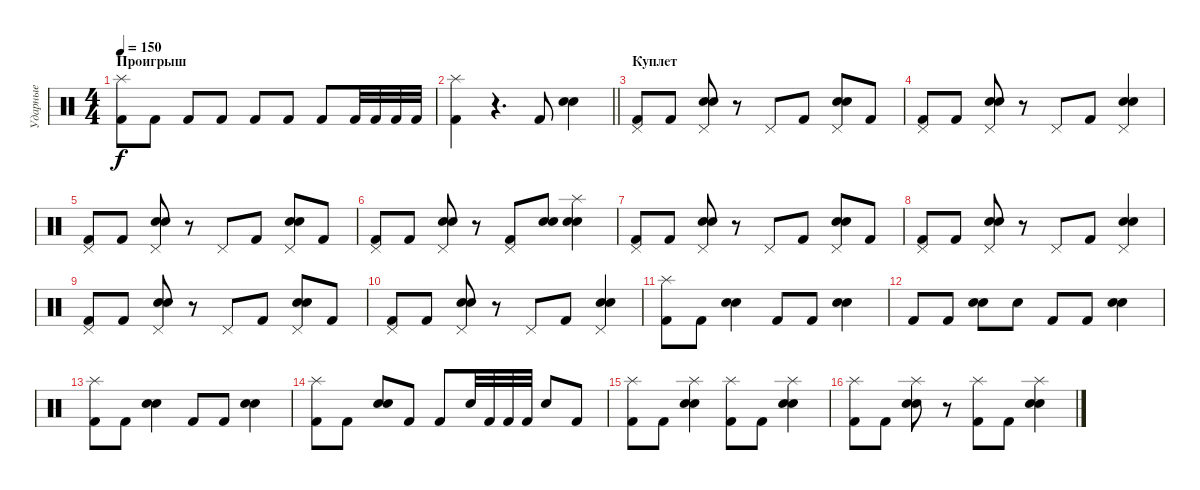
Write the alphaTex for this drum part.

\track ("Ударные" "Ударные") {instrument percussion}
\staff {score}
\articulation defaults
\ts (4 4)
\section ("" "Проигрыш")
\tempo 150
\clef neutral
\ks c
("Splash (hit)" "Kick (hit) 2").8{dy f} "Kick (hit) 2".8 "Kick (hit) 2".8 "Kick (hit) 2".8 "Kick (hit) 2".8 "Kick (hit) 2".8 "Kick (hit) 2".8 "Kick (hit) 2".32 "Kick (hit) 2".32 "Kick (hit) 2".32 "Kick (hit) 2".32 |
\barLineRight lightlight
("Splash (hit)" "Kick (hit) 2").4 r.4{d} "Kick (hit) 2".8 ("Electric Snare (hit)" "Snare (hit) 2").4 |
\section ("" "Куплет")
("Pedal Hi-Hat (hit)" "Kick (hit) 2").8 "Kick (hit) 2".8 ("Pedal Hi-Hat (hit)" "Electric Snare (hit)" "Snare (hit) 2").8 r.8 "Pedal Hi-Hat (hit)".8 "Kick (hit) 2".8 ("Pedal Hi-Hat (hit)" "Electric Snare (hit)" "Snare (hit) 2").8 "Kick (hit) 2".8 |
("Pedal Hi-Hat (hit)" "Kick (hit) 2").8 "Kick (hit) 2".8 ("Pedal Hi-Hat (hit)" "Electric Snare (hit)" "Snare (hit) 2").8 r.8 "Pedal Hi-Hat (hit)".8 "Kick (hit) 2".8 ("Pedal Hi-Hat (hit)" "Electric Snare (hit)" "Snare (hit) 2").4 |
("Pedal Hi-Hat (hit)" "Kick (hit) 2").8 "Kick (hit) 2".8 ("Pedal Hi-Hat (hit)" "Electric Snare (hit)" "Snare (hit) 2").8 r.8 "Pedal Hi-Hat (hit)".8 "Kick (hit) 2".8 ("Pedal Hi-Hat (hit)" "Electric Snare (hit)" "Snare (hit) 2").8 "Kick (hit) 2".8 |
("Pedal Hi-Hat (hit)" "Kick (hit) 2").8 "Kick (hit) 2".8 ("Pedal Hi-Hat (hit)" "Electric Snare (hit)" "Snare (hit) 2").8 r.8 ("Pedal Hi-Hat (hit)" "Kick (hit) 2").8 ("Electric Snare (hit)" "Snare (hit) 2").8 ("Splash (hit)" "Electric Snare (hit)" "Snare (hit) 2").4 |
("Pedal Hi-Hat (hit)" "Kick (hit) 2").8 "Kick (hit) 2".8 ("Pedal Hi-Hat (hit)" "Electric Snare (hit)" "Snare (hit) 2").8 r.8 "Pedal Hi-Hat (hit)".8 "Kick (hit) 2".8 ("Pedal Hi-Hat (hit)" "Electric Snare (hit)" "Snare (hit) 2").8 "Kick (hit) 2".8 |
("Pedal Hi-Hat (hit)" "Kick (hit) 2").8 "Kick (hit) 2".8 ("Pedal Hi-Hat (hit)" "Electric Snare (hit)" "Snare (hit) 2").8 r.8 "Pedal Hi-Hat (hit)".8 "Kick (hit) 2".8 ("Pedal Hi-Hat (hit)" "Electric Snare (hit)" "Snare (hit) 2").4 |
("Pedal Hi-Hat (hit)" "Kick (hit) 2").8 "Kick (hit) 2".8 ("Pedal Hi-Hat (hit)" "Electric Snare (hit)" "Snare (hit) 2").8 r.8 "Pedal Hi-Hat (hit)".8 "Kick (hit) 2".8 ("Pedal Hi-Hat (hit)" "Electric Snare (hit)" "Snare (hit) 2").8 "Kick (hit) 2".8 |
("Pedal Hi-Hat (hit)" "Kick (hit) 2").8 "Kick (hit) 2".8 ("Pedal Hi-Hat (hit)" "Electric Snare (hit)" "Snare (hit) 2").8 r.8 "Pedal Hi-Hat (hit)".8 "Kick (hit) 2".8 ("Pedal Hi-Hat (hit)" "Electric Snare (hit)" "Snare (hit) 2").4 |
("Splash (hit)" "Kick (hit) 2").8 "Kick (hit) 2".8 ("Electric Snare (hit)" "Snare (hit) 2").4 "Kick (hit) 2".8 "Kick (hit) 2".8 ("Electric Snare (hit)" "Snare (hit) 2").4 |
"Kick (hit) 2".8 "Kick (hit) 2".8 ("Electric Snare (hit)" "Snare (hit) 2").8 "Electric Snare (hit)".8 "Kick (hit) 2".8 "Kick (hit) 2".8 ("Electric Snare (hit)" "Snare (hit) 2").4 |
("Splash (hit)" "Kick (hit) 2").8 "Kick (hit) 2".8 ("Electric Snare (hit)" "Snare (hit) 2").4 "Kick (hit) 2".8 "Kick (hit) 2".8 ("Electric Snare (hit)" "Snare (hit) 2").4 |
("Splash (hit)" "Kick (hit) 2").8 "Kick (hit) 2".8 ("Electric Snare (hit)" "Snare (hit) 2").8 "Kick (hit) 2".8 "Kick (hit) 2".8 "Electric Snare (hit)".32 "Kick (hit) 2".32 "Kick (hit) 2".32 "Kick (hit) 2".32 "Electric Snare (hit)".8 "Kick (hit) 2".8 |
("Splash (hit)" "Kick (hit) 2").8 "Kick (hit) 2".8 ("Splash (hit)" "Electric Snare (hit)" "Snare (hit) 2").4 ("Splash (hit)" "Kick (hit) 2").8 "Kick (hit) 2".8 ("Splash (hit)" "Electric Snare (hit)" "Snare (hit) 2").4 |
("Splash (hit)" "Kick (hit) 2").8 "Kick (hit) 2".8 ("Splash (hit)" "Electric Snare (hit)" "Snare (hit) 2").8 r.8 ("Splash (hit)" "Kick (hit) 2").8 "Kick (hit) 2".8 ("Splash (hit)" "Electric Snare (hit)" "Snare (hit) 2").4
